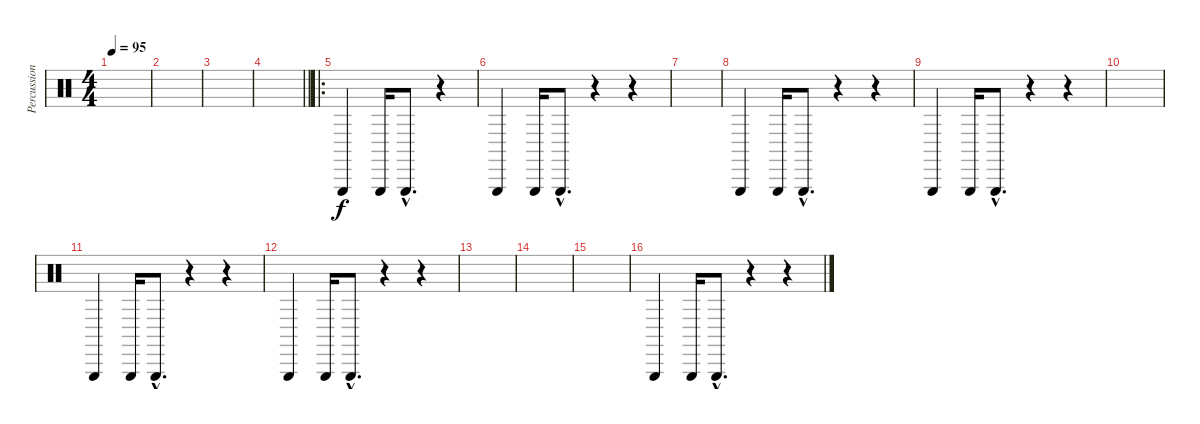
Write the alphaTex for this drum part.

\track ("Percussions" "Percussion") {instrument percussion}
\staff {score}
\articulation defaults
\ts (4 4)
\tempo 95
\clef neutral
\ks c
|
|
|
\barLineRight lightlight
|
\ro "Triangle (hit)".4 "Triangle (hit)".16 "Triangle (hit)"{hac}.8{d}
r.4 |
"Triangle (hit)".4 "Triangle (hit)".16 "Triangle (hit)"{hac}.8{d} r.4 r.4 |
|
"Triangle (hit)".4 "Triangle (hit)".16 "Triangle (hit)"{hac}.8{d} r.4 r.4 |
"Triangle (hit)".4 "Triangle (hit)".16 "Triangle (hit)"{hac}.8{d} r.4 r.4 |
|
"Triangle (hit)".4 "Triangle (hit)".16 "Triangle (hit)"{hac}.8{d} r.4 r.4 |
"Triangle (hit)".4 "Triangle (hit)".16 "Triangle (hit)"{hac}.8{d} r.4 r.4 |
|
|
|
"Triangle (hit)".4 "Triangle (hit)".16 "Triangle (hit)"{hac}.8{d} r.4 r.4
